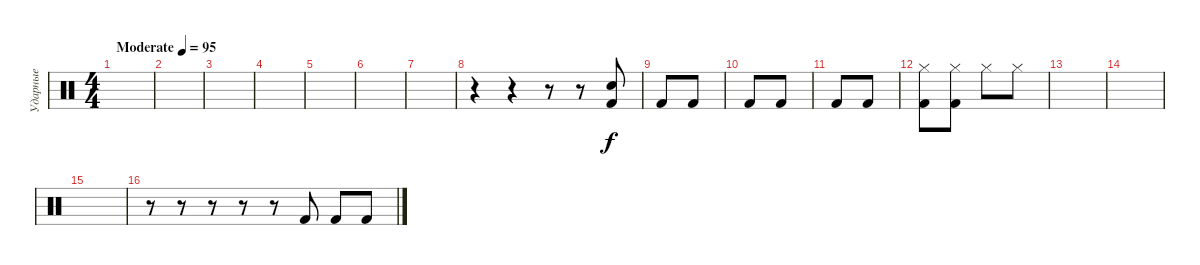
\track ("Ударные" "Ударные") {instrument percussion}
\staff {score}
\articulation defaults
\ts (4 4)
\tempo (95 "Moderate")
\clef neutral
\ks c
|
|
|
|
|
|
|
r.4 r.4 r.8 r.8 ("Kick (hit) 2" "Snare (hit) 2").8 |
"Kick (hit) 2".8 "Kick (hit) 2".8 |
"Kick (hit) 2".8 "Kick (hit) 2".8 |
"Kick (hit) 2".8 "Kick (hit) 2".8 |
("Hi-Hat (closed)" "Kick (hit) 2").8 ("Hi-Hat (closed)" "Kick (hit) 2").8 "Hi-Hat (closed)".8 "Hi-Hat (closed)".8 |
|
|
|
r.8 r.8 r.8 r.8 r.8 "Kick (hit) 2".8 "Kick (hit) 2".8 "Kick (hit) 2".8
